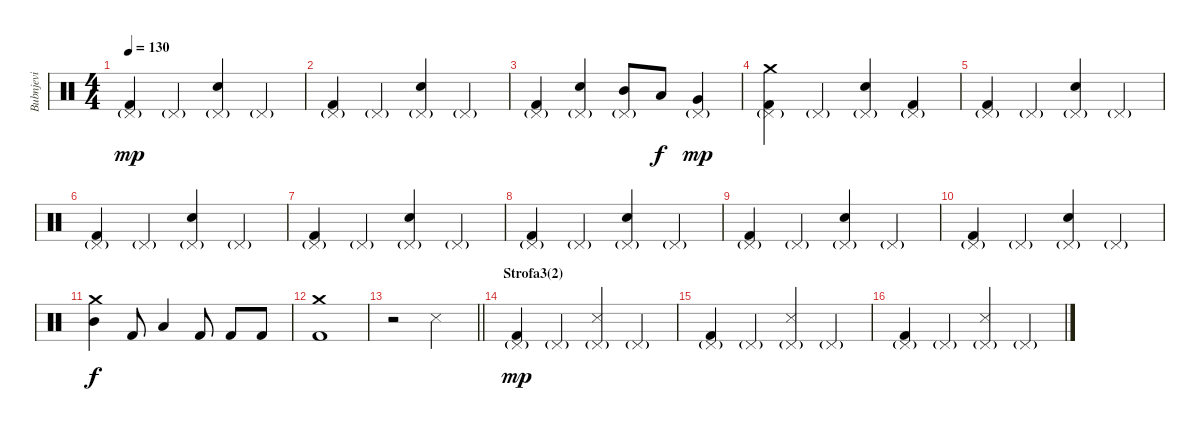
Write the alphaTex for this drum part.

\track ("Bubnjevi" "Bubnjevi") {instrument percussion}
\staff {score}
\articulation defaults
\ts (4 4)
\tempo 130
\clef neutral
\ks c
("Pedal Hi-Hat (hit)"{g} "Kick (hit) 2").4{dy mp} "Pedal Hi-Hat (hit)"{g}.4 ("Pedal Hi-Hat (hit)"{g} "Electric Snare (hit)").4 "Pedal Hi-Hat (hit)"{g}.4 |
("Pedal Hi-Hat (hit)"{g} "Kick (hit) 2").4 "Pedal Hi-Hat (hit)"{g}.4 ("Pedal Hi-Hat (hit)"{g} "Electric Snare (hit)").4 "Pedal Hi-Hat (hit)"{g}.4 |
("Pedal Hi-Hat (hit)"{g} "Kick (hit) 2").4 ("Pedal Hi-Hat (hit)"{g} "Electric Snare (hit)").4 ("Pedal Hi-Hat (hit)"{g} "Mid Tom (hit)").8 "Low Tom (hit)".8{dy f} ("Pedal Hi-Hat (hit)"{g} "Very Low Tom (hit)").4{dy mp} |
("Crash medium (hit)" "Pedal Hi-Hat (hit)"{g} "Kick (hit) 2").4 "Pedal Hi-Hat (hit)"{g}.4 ("Pedal Hi-Hat (hit)"{g} "Electric Snare (hit)").4 ("Pedal Hi-Hat (hit)"{g} "Kick (hit) 2").4 |
("Pedal Hi-Hat (hit)"{g} "Kick (hit) 2").4 "Pedal Hi-Hat (hit)"{g}.4 ("Pedal Hi-Hat (hit)"{g} "Electric Snare (hit)").4 "Pedal Hi-Hat (hit)"{g}.4 |
("Pedal Hi-Hat (hit)"{g} "Kick (hit) 2").4 "Pedal Hi-Hat (hit)"{g}.4 ("Pedal Hi-Hat (hit)"{g} "Electric Snare (hit)").4 "Pedal Hi-Hat (hit)"{g}.4 |
("Pedal Hi-Hat (hit)"{g} "Kick (hit) 2").4 "Pedal Hi-Hat (hit)"{g}.4 ("Pedal Hi-Hat (hit)"{g} "Electric Snare (hit)").4 "Pedal Hi-Hat (hit)"{g}.4 |
("Pedal Hi-Hat (hit)"{g} "Kick (hit) 2").4 "Pedal Hi-Hat (hit)"{g}.4 ("Pedal Hi-Hat (hit)"{g} "Electric Snare (hit)").4 "Pedal Hi-Hat (hit)"{g}.4 |
("Pedal Hi-Hat (hit)"{g} "Kick (hit) 2").4 "Pedal Hi-Hat (hit)"{g}.4 ("Pedal Hi-Hat (hit)"{g} "Electric Snare (hit)").4 "Pedal Hi-Hat (hit)"{g}.4 |
("Pedal Hi-Hat (hit)"{g} "Kick (hit) 2").4 "Pedal Hi-Hat (hit)"{g}.4 ("Pedal Hi-Hat (hit)"{g} "Electric Snare (hit)").4 "Pedal Hi-Hat (hit)"{g}.4 |
("Crash medium (hit)" "Mid Tom (hit)").4{dy f} "Kick (hit) 2".8 "Low Tom (hit)".4 "Kick (hit) 2".8 "Kick (hit) 2".8 "Kick (hit) 2".8 |
("Crash medium (hit)" "Kick (hit) 2").1 |
\barLineRight lightlight
r.2 "Snare (side stick) 3".2 |
\section ("" "Strofa3(2)")
("Pedal Hi-Hat (hit)"{g} "Kick (hit) 2").4{dy mp} "Pedal Hi-Hat (hit)"{g}.4 ("Pedal Hi-Hat (hit)"{g} "Snare (side stick) 3").4 "Pedal Hi-Hat (hit)"{g}.4 |
("Pedal Hi-Hat (hit)"{g} "Kick (hit) 2").4 "Pedal Hi-Hat (hit)"{g}.4 ("Pedal Hi-Hat (hit)"{g} "Snare (side stick) 3").4 "Pedal Hi-Hat (hit)"{g}.4 |
("Pedal Hi-Hat (hit)"{g} "Kick (hit) 2").4 "Pedal Hi-Hat (hit)"{g}.4 ("Pedal Hi-Hat (hit)"{g} "Snare (side stick) 3").4 "Pedal Hi-Hat (hit)"{g}.4
